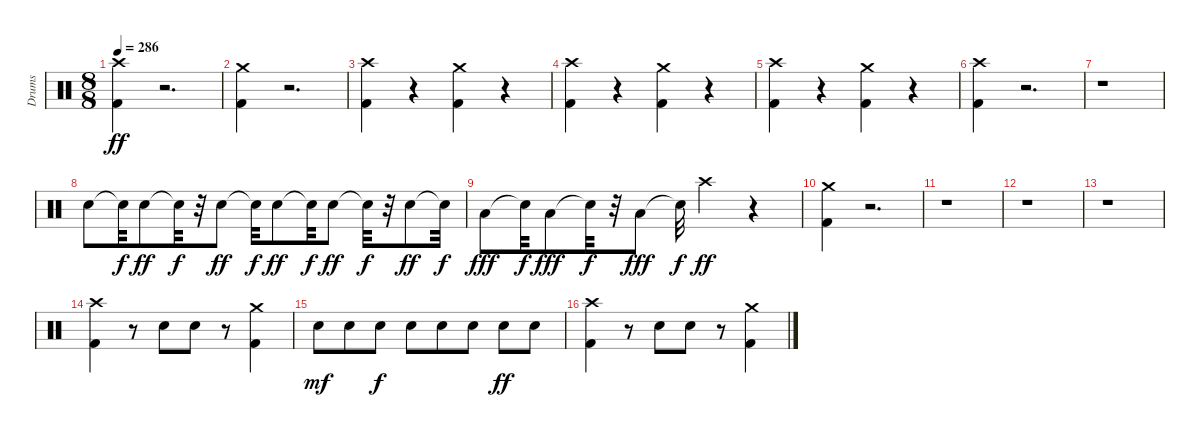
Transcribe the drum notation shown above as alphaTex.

\track ("Drums" "Drums") {instrument percussion}
\staff {score}
\articulation defaults
\ts (8 8)
\tempo 286
\clef neutral
\ks c
("Kick (hit) 2" "Crash high (hit)").4{dy ff} r.2{d} |
("Kick (hit) 2" "Crash medium (hit)").4 r.2{d} |
("Kick (hit) 2" "Crash high (hit)").4 r.4 ("Kick (hit) 2" "Crash medium (hit)").4 r.4 |
("Kick (hit) 2" "Crash high (hit)").4 r.4 ("Kick (hit) 2" "Crash medium (hit)").4 r.4 |
("Kick (hit) 2" "Crash high (hit)").4 r.4 ("Kick (hit) 2" "Crash medium (hit)").4 r.4 |
("Kick (hit) 2" "Crash high (hit)").4 r.2{d} |
r.1 |
"Snare (hit) 2".8 "Snare (hit)"{t}.32{dy f} "Snare (hit) 2".8{dy ff} "Snare (hit)"{t}.32{dy f} r.32 "Snare (hit) 2".8{dy ff} "Snare (hit)"{t}.32{dy f} "Snare (hit) 2".8{dy ff} "Snare (hit)"{t}.32{dy f} "Snare (hit) 2".8{dy ff} "Snare (hit)"{t}.32{dy f} r.32 "Snare (hit) 2".8{dy ff} "Snare (hit)"{t}.32{dy f} |
"Low Tom (hit)".8{dy fff} "Snare (hit)"{t}.32{dy f} "Low Tom (hit)".8{dy fff} "Snare (hit)"{t}.32{dy f} r.32 "Low Tom (hit)".8{dy fff} "Snare (hit)"{t}.32{dy f} "Crash high (hit)".4{dy ff} r.4 |
("Kick (hit) 2" "Crash medium (hit)").4 r.2{d} |
r.1 |
r.1 |
r.1 |
("Kick (hit) 2" "Crash high (hit)").4 r.8 "Snare (hit) 2".8 "Snare (hit) 2".8 r.8 ("Kick (hit) 2" "Crash medium (hit)").4 |
"Snare (hit) 2".8{dy mf} "Snare (hit) 2".8 "Snare (hit) 2".8{dy f} "Snare (hit) 2".8 "Snare (hit) 2".8 "Snare (hit) 2".8 "Snare (hit) 2".8{dy ff} "Snare (hit) 2".8 |
("Kick (hit) 2" "Crash high (hit)").4 r.8 "Snare (hit) 2".8 "Snare (hit) 2".8 r.8 ("Kick (hit) 2" "Crash medium (hit)").4
